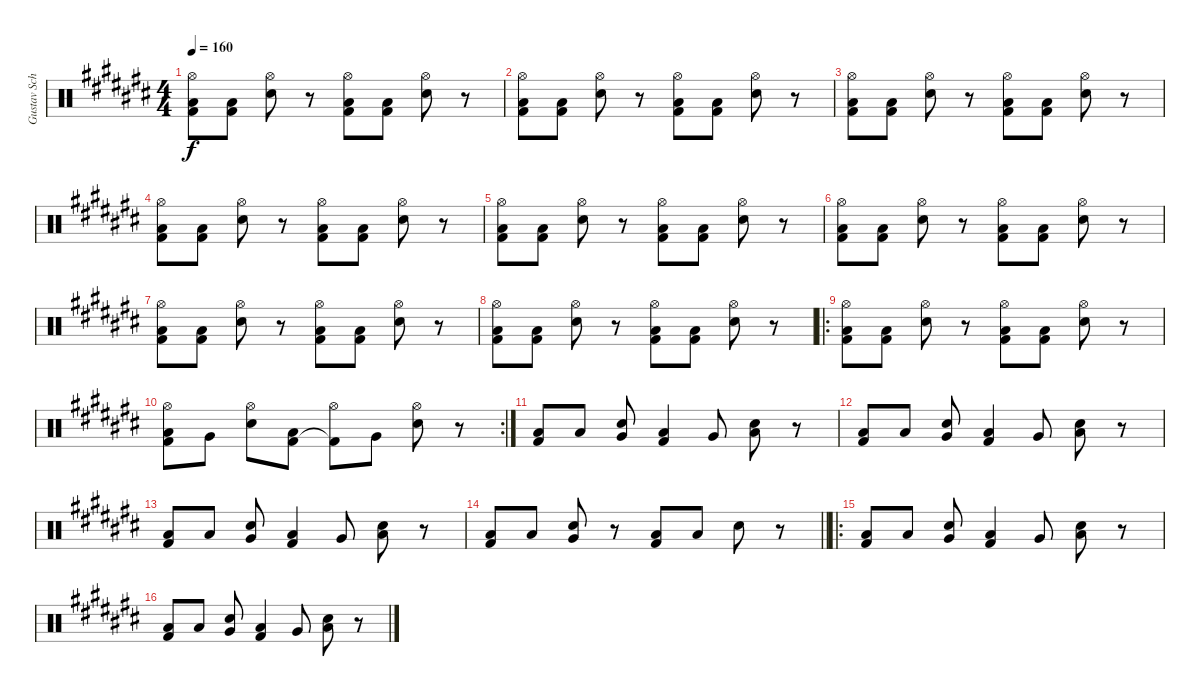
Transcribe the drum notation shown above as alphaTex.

\track ("Gustav Schäfer" "Gustav Sch") {instrument percussion}
\staff {score}
\articulation defaults
\ts (4 4)
\tempo 160
\clef neutral
\ks c#
("Low Floor Tom (hit)" "Kick (hit) 2" "Hi-Hat (open)").8{dy f} ("Low Floor Tom (hit)" "Kick (hit) 2").8 ("Electric Snare (hit)" "Hi-Hat (open)").8 r.8 ("Low Floor Tom (hit)" "Kick (hit) 2" "Hi-Hat (open)").8 ("Low Floor Tom (hit)" "Kick (hit) 2").8 ("Electric Snare (hit)" "Hi-Hat (open)").8 r.8 |
("Low Floor Tom (hit)" "Kick (hit) 2" "Hi-Hat (open)").8 ("Low Floor Tom (hit)" "Kick (hit) 2").8 ("Electric Snare (hit)" "Hi-Hat (open)").8 r.8 ("Low Floor Tom (hit)" "Kick (hit) 2" "Hi-Hat (open)").8 ("Low Floor Tom (hit)" "Kick (hit) 2").8 ("Electric Snare (hit)" "Hi-Hat (open)").8 r.8 |
("Low Floor Tom (hit)" "Kick (hit) 2" "Hi-Hat (open)").8 ("Low Floor Tom (hit)" "Kick (hit) 2").8 ("Electric Snare (hit)" "Hi-Hat (open)").8 r.8 ("Low Floor Tom (hit)" "Kick (hit) 2" "Hi-Hat (open)").8 ("Low Floor Tom (hit)" "Kick (hit) 2").8 ("Electric Snare (hit)" "Hi-Hat (open)").8 r.8 |
("Low Floor Tom (hit)" "Kick (hit) 2" "Hi-Hat (open)").8 ("Low Floor Tom (hit)" "Kick (hit) 2").8 ("Electric Snare (hit)" "Hi-Hat (open)").8 r.8 ("Low Floor Tom (hit)" "Kick (hit) 2" "Hi-Hat (open)").8 ("Low Floor Tom (hit)" "Kick (hit) 2").8 ("Electric Snare (hit)" "Hi-Hat (open)").8 r.8 |
("Low Floor Tom (hit)" "Kick (hit) 2" "Hi-Hat (open)").8 ("Low Floor Tom (hit)" "Kick (hit) 2").8 ("Electric Snare (hit)" "Hi-Hat (open)").8 r.8 ("Low Floor Tom (hit)" "Kick (hit) 2" "Hi-Hat (open)").8 ("Low Floor Tom (hit)" "Kick (hit) 2").8 ("Electric Snare (hit)" "Hi-Hat (open)").8 r.8 |
("Low Floor Tom (hit)" "Kick (hit) 2" "Hi-Hat (open)").8 ("Low Floor Tom (hit)" "Kick (hit) 2").8 ("Electric Snare (hit)" "Hi-Hat (open)").8 r.8 ("Low Floor Tom (hit)" "Kick (hit) 2" "Hi-Hat (open)").8 ("Low Floor Tom (hit)" "Kick (hit) 2").8 ("Electric Snare (hit)" "Hi-Hat (open)").8 r.8 |
("Low Floor Tom (hit)" "Kick (hit) 2" "Hi-Hat (open)").8 ("Low Floor Tom (hit)" "Kick (hit) 2").8 ("Electric Snare (hit)" "Hi-Hat (open)").8 r.8 ("Low Floor Tom (hit)" "Kick (hit) 2" "Hi-Hat (open)").8 ("Low Floor Tom (hit)" "Kick (hit) 2").8 ("Electric Snare (hit)" "Hi-Hat (open)").8 r.8 |
("Low Floor Tom (hit)" "Kick (hit) 2" "Hi-Hat (open)").8 ("Low Floor Tom (hit)" "Kick (hit) 2").8 ("Electric Snare (hit)" "Hi-Hat (open)").8 r.8 ("Low Floor Tom (hit)" "Kick (hit) 2" "Hi-Hat (open)").8 ("Low Floor Tom (hit)" "Kick (hit) 2").8 ("Electric Snare (hit)" "Hi-Hat (open)").8 r.8 |
\ro
("Low Floor Tom (hit)" "Kick (hit) 2" "Hi-Hat (open)").8 ("Low Floor Tom (hit)" "Kick (hit) 2").8 ("Electric Snare (hit)" "Hi-Hat (open)").8 r.8 ("Low Floor Tom (hit)" "Kick (hit) 2" "Hi-Hat (open)").8 ("Low Floor Tom (hit)" "Kick (hit) 2").8 ("Electric Snare (hit)" "Hi-Hat (open)").8 r.8 |
\rc 2
("Kick (hit) 2" "Low Floor Tom (hit)" "Hi-Hat (open)").8 "Very Low Tom (hit)".8 ("Electric Snare (hit)" "Hi-Hat (open)").8 ("Low Floor Tom (hit)" "Kick (hit) 2").8 ("Hi-Hat (open)" "Kick (hit) 2"{t}).8 "Very Low Tom (hit)".8 ("Electric Snare (hit)" "Hi-Hat (open)").8 r.8 |
("Low Floor Tom (hit)" "Kick (hit) 2").8 "Low Floor Tom (hit)".8 ("Electric Snare (hit)" "Very Low Tom (hit)").8 ("Low Floor Tom (hit)" "Kick (hit) 2").4 "Very Low Tom (hit)".8 ("Electric Snare (hit)" "Low Floor Tom (hit)").8 r.8 |
("Low Floor Tom (hit)" "Kick (hit) 2").8 "Low Floor Tom (hit)".8 ("Electric Snare (hit)" "Very Low Tom (hit)").8 ("Low Floor Tom (hit)" "Kick (hit) 2").4 "Very Low Tom (hit)".8 ("Electric Snare (hit)" "Low Floor Tom (hit)").8 r.8 |
("Low Floor Tom (hit)" "Kick (hit) 2").8 "Low Floor Tom (hit)".8 ("Electric Snare (hit)" "Very Low Tom (hit)").8 ("Low Floor Tom (hit)" "Kick (hit) 2").4 "Very Low Tom (hit)".8 ("Electric Snare (hit)" "Low Floor Tom (hit)").8 r.8 |
\barLineRight lightlight
("Low Floor Tom (hit)" "Kick (hit) 2").8 "Low Floor Tom (hit)".8 ("Electric Snare (hit)" "Very Low Tom (hit)").8 r.8 ("Low Floor Tom (hit)" "Kick (hit) 2").8 "Low Floor Tom (hit)".8 "Electric Snare (hit)".8 r.8 |
\ro
("Low Floor Tom (hit)" "Kick (hit) 2").8 "Low Floor Tom (hit)".8 ("Electric Snare (hit)" "Very Low Tom (hit)").8 ("Low Floor Tom (hit)" "Kick (hit) 2").4 "Very Low Tom (hit)".8 ("Electric Snare (hit)" "Low Floor Tom (hit)").8 r.8 |
("Low Floor Tom (hit)" "Kick (hit) 2").8 "Low Floor Tom (hit)".8 ("Electric Snare (hit)" "Very Low Tom (hit)").8 ("Low Floor Tom (hit)" "Kick (hit) 2").4 "Very Low Tom (hit)".8 ("Electric Snare (hit)" "Low Floor Tom (hit)").8 r.8
